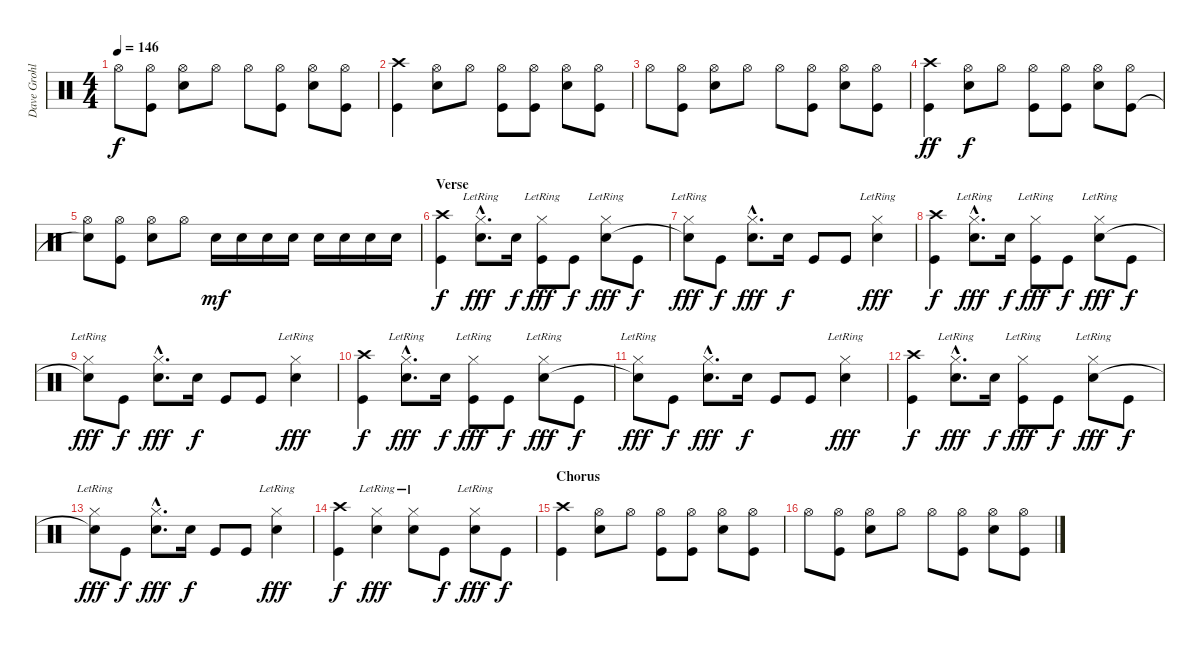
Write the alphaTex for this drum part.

\track ("Dave Grohl - Drums" "Dave Grohl") {instrument percussion}
\staff {score}
\articulation defaults
\ts (4 4)
\tempo 146
\clef neutral
\ks c "Hi-Hat (open)".8{dy f}
("Hi-Hat (open)" "Kick (hit)").8 ("Hi-Hat (open)" "Electric Snare (hit)").8 "Hi-Hat (open)".8 "Hi-Hat (open)".8 ("Hi-Hat (open)" "Kick (hit)").8 ("Hi-Hat (open)" "Electric Snare (hit)").8 ("Hi-Hat (open)" "Kick (hit)").8 |
("Crash high (hit)" "Kick (hit)").4 ("Hi-Hat (open)" "Electric Snare (hit)").8 "Hi-Hat (open)".8 ("Hi-Hat (open)" "Kick (hit)").8 ("Hi-Hat (open)" "Kick (hit)").8 ("Hi-Hat (open)" "Electric Snare (hit)").8 ("Hi-Hat (open)" "Kick (hit)").8 |
"Hi-Hat (open)".8 ("Hi-Hat (open)" "Kick (hit)").8 ("Hi-Hat (open)" "Electric Snare (hit)").8 "Hi-Hat (open)".8 "Hi-Hat (open)".8 ("Hi-Hat (open)" "Kick (hit)").8 ("Hi-Hat (open)" "Electric Snare (hit)").8 ("Hi-Hat (open)" "Kick (hit)").8 |
("Crash high (hit)" "Kick (hit)").4{dy ff} ("Hi-Hat (open)" "Electric Snare (hit)").8{dy f} "Hi-Hat (open)".8 ("Hi-Hat (open)" "Kick (hit)").8 ("Hi-Hat (open)" "Kick (hit)").8 ("Hi-Hat (open)" "Electric Snare (hit)").8 ("Hi-Hat (open)" "Kick (hit)").8 |
("Hi-Hat (open)" "Snare (hit)"{t}).8 ("Hi-Hat (open)" "Kick (hit)").8 ("Hi-Hat (open)" "Electric Snare (hit)").8 "Hi-Hat (open)".8 "Electric Snare (hit)".16{dy mf} "Electric Snare (hit)".16 "Electric Snare (hit)".16 "Electric Snare (hit)".16 "Electric Snare (hit)".16 "Electric Snare (hit)".16 "Electric Snare (hit)".16 "Electric Snare (hit)".16 |
\section ("" "Verse")
("Crash high (hit)" "Kick (hit)").4{dy f} ("Hi-Hat (closed)"{hac lr} "Electric Snare (hit)"{hac}).8{d dy fff} "Electric Snare (hit)".16{dy f} ("Hi-Hat (closed)"{lr} "Kick (hit)").8{dy fff} "Kick (hit)".8{dy f} ("Hi-Hat (closed)"{lr} "Electric Snare (hit)").8{dy fff} "Kick (hit)".8{dy f} |
("Hi-Hat (closed)"{lr} "Snare (hit)"{t}).8{dy fff} "Kick (hit)".8{dy f} ("Hi-Hat (closed)"{hac} "Electric Snare (hit)"{hac}).8{d dy fff} "Electric Snare (hit)".16{dy f} "Kick (hit)".8 "Kick (hit)".8 ("Hi-Hat (closed)"{lr} "Electric Snare (hit)").4{dy fff} |
("Crash high (hit)" "Kick (hit)").4{dy f} ("Hi-Hat (closed)"{hac lr} "Electric Snare (hit)"{hac}).8{d dy fff} "Electric Snare (hit)".16{dy f} ("Hi-Hat (closed)"{lr} "Kick (hit)").8{dy fff} "Kick (hit)".8{dy f} ("Hi-Hat (closed)"{lr} "Electric Snare (hit)").8{dy fff} "Kick (hit)".8{dy f} |
("Hi-Hat (closed)"{lr} "Snare (hit)"{t}).8{dy fff} "Kick (hit)".8{dy f} ("Hi-Hat (closed)"{hac} "Electric Snare (hit)"{hac}).8{d dy fff} "Electric Snare (hit)".16{dy f} "Kick (hit)".8 "Kick (hit)".8 ("Hi-Hat (closed)"{lr} "Electric Snare (hit)").4{dy fff} |
("Crash high (hit)" "Kick (hit)").4{dy f} ("Hi-Hat (closed)"{hac lr} "Electric Snare (hit)"{hac}).8{d dy fff} "Electric Snare (hit)".16{dy f} ("Hi-Hat (closed)"{lr} "Kick (hit)").8{dy fff} "Kick (hit)".8{dy f} ("Hi-Hat (closed)"{lr} "Electric Snare (hit)").8{dy fff} "Kick (hit)".8{dy f} |
("Hi-Hat (closed)"{lr} "Snare (hit)"{t}).8{dy fff} "Kick (hit)".8{dy f} ("Hi-Hat (closed)"{hac} "Electric Snare (hit)"{hac}).8{d dy fff} "Electric Snare (hit)".16{dy f} "Kick (hit)".8 "Kick (hit)".8 ("Hi-Hat (closed)"{lr} "Electric Snare (hit)").4{dy fff} |
("Crash high (hit)" "Kick (hit)").4{dy f} ("Hi-Hat (closed)"{hac lr} "Electric Snare (hit)"{hac}).8{d dy fff} "Electric Snare (hit)".16{dy f} ("Hi-Hat (closed)"{lr} "Kick (hit)").8{dy fff} "Kick (hit)".8{dy f} ("Hi-Hat (closed)"{lr} "Electric Snare (hit)").8{dy fff} "Kick (hit)".8{dy f} |
("Hi-Hat (closed)"{lr} "Snare (hit)"{t}).8{dy fff} "Kick (hit)".8{dy f} ("Hi-Hat (closed)"{hac} "Electric Snare (hit)"{hac}).8{d dy fff} "Electric Snare (hit)".16{dy f} "Kick (hit)".8 "Kick (hit)".8 ("Hi-Hat (closed)"{lr} "Electric Snare (hit)").4{dy fff} |
("Crash high (hit)" "Kick (hit)").4{dy f} ("Hi-Hat (closed)"{lr} "Electric Snare (hit)").4{dy fff} ("Hi-Hat (closed)"{lr} "Electric Snare (hit)").8 "Kick (hit)".8{dy f} ("Hi-Hat (closed)"{lr} "Electric Snare (hit)").8{dy fff} "Kick (hit)".8{dy f} |
\section ("" "Chorus")
("Crash high (hit)" "Kick (hit)").4 ("Hi-Hat (open)" "Electric Snare (hit)").8 "Hi-Hat (open)".8 ("Hi-Hat (open)" "Kick (hit)").8 ("Hi-Hat (open)" "Kick (hit)").8 ("Hi-Hat (open)" "Electric Snare (hit)").8 ("Hi-Hat (open)" "Kick (hit)").8 |
"Hi-Hat (open)".8 ("Hi-Hat (open)" "Kick (hit)").8 ("Hi-Hat (open)" "Electric Snare (hit)").8 "Hi-Hat (open)".8 "Hi-Hat (open)".8 ("Hi-Hat (open)" "Kick (hit)").8 ("Hi-Hat (open)" "Electric Snare (hit)").8 ("Hi-Hat (open)" "Kick (hit)").8
